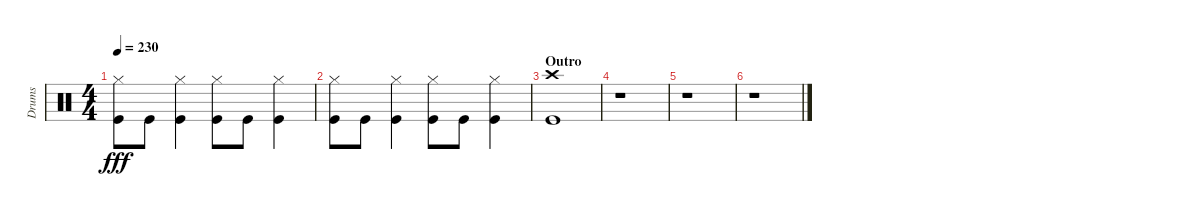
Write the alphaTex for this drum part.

\track ("Drums" "Drums") {instrument percussion}
\staff {score}
\articulation defaults
\ts (4 4)
\tempo 230
\clef neutral
\ks c
("Hi-Hat (closed)" "Kick (hit)").8{dy fff} "Kick (hit)".8 ("Hi-Hat (closed)" "Kick (hit)").4 ("Hi-Hat (closed)" "Kick (hit)").8 "Kick (hit)".8 ("Hi-Hat (closed)" "Kick (hit)").4 |
("Hi-Hat (closed)" "Kick (hit)").8 "Kick (hit)".8 ("Hi-Hat (closed)" "Kick (hit)").4 ("Hi-Hat (closed)" "Kick (hit)").8 "Kick (hit)".8 ("Hi-Hat (closed)" "Kick (hit)").4 |
\section ("" "Outro")
("Crash high (hit)" "Kick (hit)").1 |
r.1 |
r.1 |
r.1
